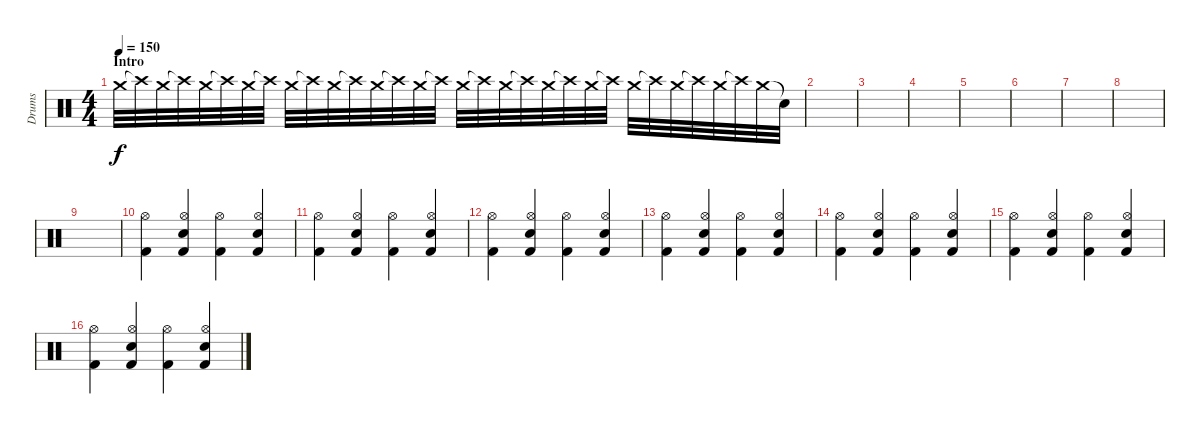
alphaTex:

\track ("Drums" "Drums") {instrument percussion}
\staff {score}
\articulation defaults
\ts (4 4)
\section ("" "Intro")
\tempo 150
\clef neutral
\ks c "Crash medium (hit)".32{dy f volume 9} "Crash high (hit)"{t}.32{volume 16} "Crash medium (hit)".32 "Crash high (hit)"{t}.32 "Crash medium (hit)".32 "Crash high (hit)"{t}.32 "Crash medium (hit)".32 "Crash high (hit)"{t}.32 "Crash medium (hit)".32 "Crash high (hit)"{t}.32 "Crash medium (hit)".32 "Crash high (hit)"{t}.32 "Crash medium (hit)".32 "Crash high (hit)"{t}.32 "Crash medium (hit)".32 "Crash high (hit)"{t}.32 "Crash medium (hit)".32 "Crash high (hit)"{t}.32 "Crash medium (hit)".32 "Crash high (hit)"{t}.32 "Crash medium (hit)".32 "Crash high (hit)"{t}.32 "Crash medium (hit)".32 "Crash high (hit)"{t}.32 "Crash medium (hit)".32 "Crash high (hit)"{t}.32 "Crash medium (hit)".32 "Crash high (hit)"{t}.32 "Crash medium (hit)".32 "Crash high (hit)"{t}.32 "Crash medium (hit)".32 "Snare (hit)"{t}.32
|
|
|
|
|
|
|
|
|
("Hi-Hat (open)" "Kick (hit) 2").4 ("Hi-Hat (open)" "Snare (hit) 2" "Kick (hit) 2").4 ("Hi-Hat (open)" "Kick (hit) 2").4 ("Hi-Hat (open)" "Snare (hit) 2" "Kick (hit) 2").4 |
("Hi-Hat (open)" "Kick (hit) 2").4 ("Hi-Hat (open)" "Snare (hit) 2" "Kick (hit) 2").4 ("Hi-Hat (open)" "Kick (hit) 2").4 ("Hi-Hat (open)" "Snare (hit) 2" "Kick (hit) 2").4 |
("Hi-Hat (open)" "Kick (hit) 2").4 ("Hi-Hat (open)" "Snare (hit) 2" "Kick (hit) 2").4 ("Hi-Hat (open)" "Kick (hit) 2").4 ("Hi-Hat (open)" "Snare (hit) 2" "Kick (hit) 2").4 |
("Hi-Hat (open)" "Kick (hit) 2").4 ("Hi-Hat (open)" "Snare (hit) 2" "Kick (hit) 2").4 ("Hi-Hat (open)" "Kick (hit) 2").4 ("Hi-Hat (open)" "Snare (hit) 2" "Kick (hit) 2").4 |
("Hi-Hat (open)" "Kick (hit) 2").4 ("Hi-Hat (open)" "Snare (hit) 2" "Kick (hit) 2").4 ("Hi-Hat (open)" "Kick (hit) 2").4 ("Hi-Hat (open)" "Snare (hit) 2" "Kick (hit) 2").4 |
("Hi-Hat (open)" "Kick (hit) 2").4 ("Hi-Hat (open)" "Snare (hit) 2" "Kick (hit) 2").4 ("Hi-Hat (open)" "Kick (hit) 2").4 ("Hi-Hat (open)" "Snare (hit) 2" "Kick (hit) 2").4 |
("Hi-Hat (open)" "Kick (hit) 2").4 ("Hi-Hat (open)" "Snare (hit) 2" "Kick (hit) 2").4 ("Hi-Hat (open)" "Kick (hit) 2").4 ("Hi-Hat (open)" "Snare (hit) 2" "Kick (hit) 2").4
